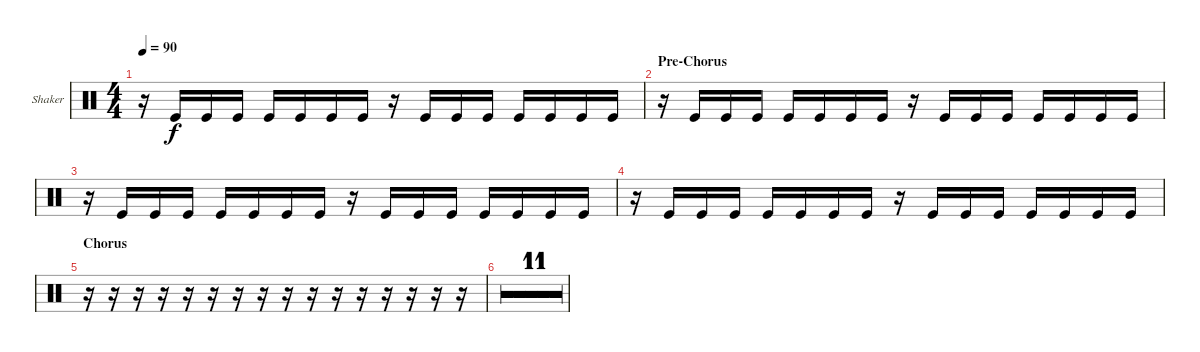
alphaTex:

\bracketExtendMode groupsimilarinstruments
\firstSystemTrackNameOrientation horizontal
\otherSystemsTrackNameOrientation horizontal
\track ("Shaker" "Shaker") {multiBarRest instrument percussion}
\staff {score}
\articulation defaults
\ts (4 4)
\tempo 90
\clef neutral
\ks c
r.16{dy f} "Kick (hit)".16 "Kick (hit)".16 "Kick (hit)".16 "Kick (hit)".16 "Kick (hit)".16 "Kick (hit)".16 "Kick (hit)".16 r.16 "Kick (hit)".16 "Kick (hit)".16 "Kick (hit)".16 "Kick (hit)".16 "Kick (hit)".16 "Kick (hit)".16 "Kick (hit)".16 |
\section ("" "Pre-Chorus")
r.16 "Kick (hit)".16 "Kick (hit)".16 "Kick (hit)".16 "Kick (hit)".16 "Kick (hit)".16 "Kick (hit)".16 "Kick (hit)".16 r.16 "Kick (hit)".16 "Kick (hit)".16 "Kick (hit)".16 "Kick (hit)".16 "Kick (hit)".16 "Kick (hit)".16 "Kick (hit)".16 |
r.16 "Kick (hit)".16 "Kick (hit)".16 "Kick (hit)".16 "Kick (hit)".16 "Kick (hit)".16 "Kick (hit)".16 "Kick (hit)".16 r.16 "Kick (hit)".16 "Kick (hit)".16 "Kick (hit)".16 "Kick (hit)".16 "Kick (hit)".16 "Kick (hit)".16 "Kick (hit)".16 |
r.16 "Kick (hit)".16 "Kick (hit)".16 "Kick (hit)".16 "Kick (hit)".16 "Kick (hit)".16 "Kick (hit)".16 "Kick (hit)".16 r.16 "Kick (hit)".16 "Kick (hit)".16 "Kick (hit)".16 "Kick (hit)".16 "Kick (hit)".16 "Kick (hit)".16 "Kick (hit)".16 |
\section ("" "Chorus")
r.16 r.16 r.16 r.16 r.16 r.16 r.16 r.16 r.16 r.16 r.16 r.16 r.16 r.16 r.16 r.16 |
r.16 r.16 r.16 r.16 r.16 r.16 r.16 r.16 r.16 r.16 r.16 r.16 r.16 r.16 r.16 r.16 |
r.16 r.16 r.16 r.16 r.16 r.16 r.16 r.16 r.16 r.16 r.16 r.16 r.16 r.16 r.16 r.16 |
r.16 r.16 r.16 r.16 r.16 r.16 r.16 r.16 r.16 r.16 r.16 r.16 r.16 r.16 r.16 r.16 |
r.16 r.16 r.16 r.16 r.16 r.16 r.16 r.16 r.16 r.16 r.16 r.16 r.16 r.16 r.16 r.16 |
r.16 r.16 r.16 r.16 r.16 r.16 r.16 r.16 r.16 r.16 r.16 r.16 r.16 r.16 r.16 r.16 |
r.16 r.16 r.16 r.16 r.16 r.16 r.16 r.16 r.16 r.16 r.16 r.16 r.16 r.16 r.16 r.16 |
r.16 r.16 r.16 r.16 r.16 r.16 r.16 r.16 r.16 r.16 r.16 r.16 r.16 r.16 r.16 r.16 |
r.16 r.16 r.16 r.16 r.16 r.16 r.16 r.16 r.16 r.16 r.16 r.16 r.16 r.16 r.16 r.16 |
r.16 r.16 r.16 r.16 r.16 r.16 r.16 r.16 r.16 r.16 r.16 r.16 r.16 r.16 r.16 r.16 |
r.16 r.16 r.16 r.16 r.16 r.16 r.16 r.16 r.16 r.16 r.16 r.16 r.16 r.16 r.16 r.16 |
r.16 r.16 r.16 r.16 r.16 r.16 r.16 r.16 r.16 r.16 r.16 r.16 r.16 r.16 r.16 r.16
